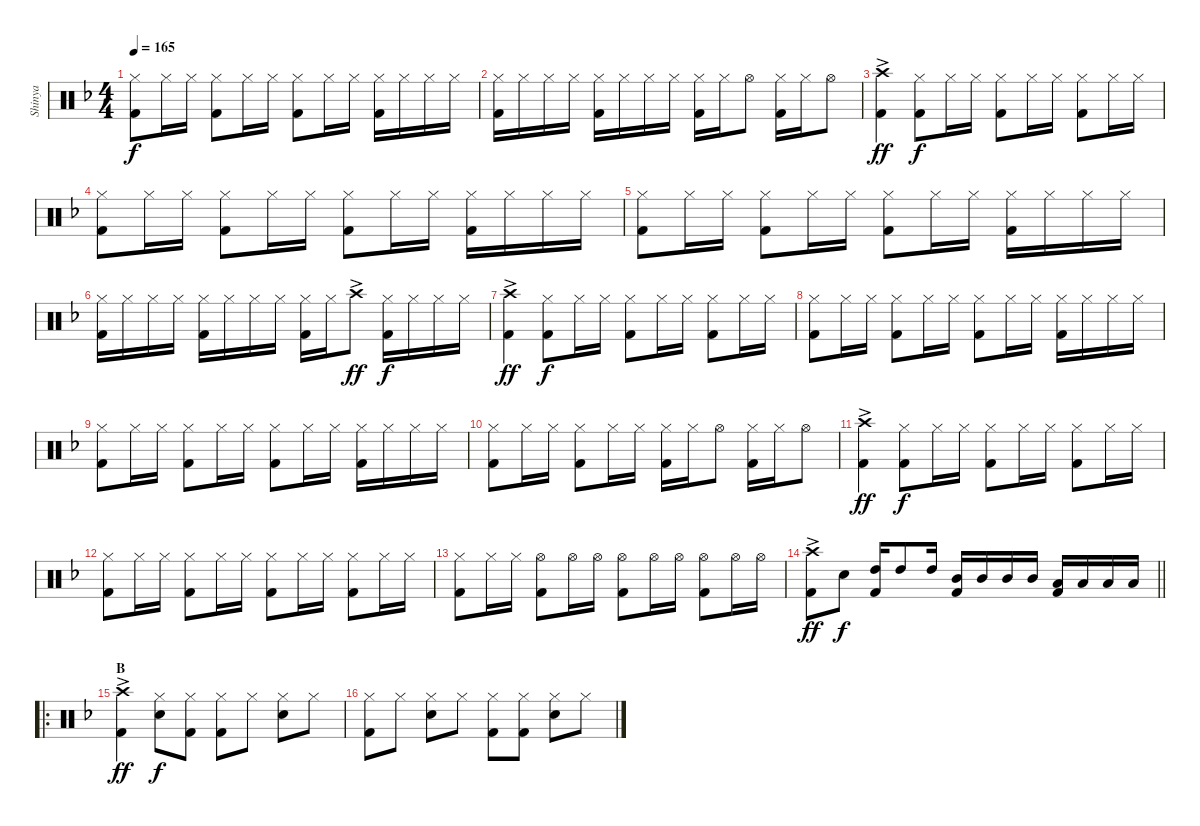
\track ("Shinya" "Shinya") {instrument percussion}
\staff {score}
\articulation defaults
\ts (4 4)
\tempo 165
\clef neutral
\ks dminor
("Hi-Hat (closed)" "Kick (hit) 2").8{dy f} "Hi-Hat (closed)".16 "Hi-Hat (closed)".16 ("Hi-Hat (closed)" "Kick (hit) 2").8 "Hi-Hat (closed)".16 "Hi-Hat (closed)".16 ("Hi-Hat (closed)" "Kick (hit) 2").8 "Hi-Hat (closed)".16 "Hi-Hat (closed)".16 ("Hi-Hat (closed)" "Kick (hit) 2").16 "Hi-Hat (closed)".16 "Hi-Hat (closed)".16 "Hi-Hat (closed)".16 |
("Hi-Hat (closed)" "Kick (hit) 2").16 "Hi-Hat (closed)".16 "Hi-Hat (closed)".16 "Hi-Hat (closed)".16 ("Hi-Hat (closed)" "Kick (hit) 2").16 "Hi-Hat (closed)".16 "Hi-Hat (closed)".16 "Hi-Hat (closed)".16 ("Hi-Hat (closed)" "Kick (hit) 2").16 "Hi-Hat (closed)".16 "Hi-Hat (open)".8 ("Hi-Hat (closed)" "Kick (hit) 2").16 "Hi-Hat (closed)".16 "Hi-Hat (open)".8 |
("Crash high (hit)"{ac} "Kick (hit) 2").4{dy ff} ("Hi-Hat (closed)" "Kick (hit) 2").8{dy f} "Hi-Hat (closed)".16 "Hi-Hat (closed)".16 ("Hi-Hat (closed)" "Kick (hit) 2").8 "Hi-Hat (closed)".16 "Hi-Hat (closed)".16 ("Hi-Hat (closed)" "Kick (hit) 2").8 "Hi-Hat (closed)".16 "Hi-Hat (closed)".16 |
("Hi-Hat (closed)" "Kick (hit) 2").8 "Hi-Hat (closed)".16 "Hi-Hat (closed)".16 ("Hi-Hat (closed)" "Kick (hit) 2").8 "Hi-Hat (closed)".16 "Hi-Hat (closed)".16 ("Hi-Hat (closed)" "Kick (hit) 2").8 "Hi-Hat (closed)".16 "Hi-Hat (closed)".16 ("Hi-Hat (closed)" "Kick (hit) 2").16 "Hi-Hat (closed)".16 "Hi-Hat (closed)".16 "Hi-Hat (closed)".16 |
("Hi-Hat (closed)" "Kick (hit) 2").8 "Hi-Hat (closed)".16 "Hi-Hat (closed)".16 ("Hi-Hat (closed)" "Kick (hit) 2").8 "Hi-Hat (closed)".16 "Hi-Hat (closed)".16 ("Hi-Hat (closed)" "Kick (hit) 2").8 "Hi-Hat (closed)".16 "Hi-Hat (closed)".16 ("Hi-Hat (closed)" "Kick (hit) 2").16 "Hi-Hat (closed)".16 "Hi-Hat (closed)".16 "Hi-Hat (closed)".16 |
("Hi-Hat (closed)" "Kick (hit) 2").16 "Hi-Hat (closed)".16 "Hi-Hat (closed)".16 "Hi-Hat (closed)".16 ("Hi-Hat (closed)" "Kick (hit) 2").16 "Hi-Hat (closed)".16 "Hi-Hat (closed)".16 "Hi-Hat (closed)".16 ("Hi-Hat (closed)" "Kick (hit) 2").16 "Hi-Hat (closed)".16 "Crash high (hit)"{ac}.8{dy ff} ("Hi-Hat (closed)" "Kick (hit) 2").16{dy f} "Hi-Hat (closed)".16 "Hi-Hat (closed)".16 "Hi-Hat (closed)".16 |
("Crash high (hit)"{ac} "Kick (hit) 2").4{dy ff} ("Hi-Hat (closed)" "Kick (hit) 2").8{dy f} "Hi-Hat (closed)".16 "Hi-Hat (closed)".16 ("Hi-Hat (closed)" "Kick (hit) 2").8 "Hi-Hat (closed)".16 "Hi-Hat (closed)".16 ("Hi-Hat (closed)" "Kick (hit) 2").8 "Hi-Hat (closed)".16 "Hi-Hat (closed)".16 |
("Hi-Hat (closed)" "Kick (hit) 2").8 "Hi-Hat (closed)".16 "Hi-Hat (closed)".16 ("Hi-Hat (closed)" "Kick (hit) 2").8 "Hi-Hat (closed)".16 "Hi-Hat (closed)".16 ("Hi-Hat (closed)" "Kick (hit) 2").8 "Hi-Hat (closed)".16 "Hi-Hat (closed)".16 ("Hi-Hat (closed)" "Kick (hit) 2").16 "Hi-Hat (closed)".16 "Hi-Hat (closed)".16 "Hi-Hat (closed)".16 |
("Hi-Hat (closed)" "Kick (hit) 2").8 "Hi-Hat (closed)".16 "Hi-Hat (closed)".16 ("Hi-Hat (closed)" "Kick (hit) 2").8 "Hi-Hat (closed)".16 "Hi-Hat (closed)".16 ("Hi-Hat (closed)" "Kick (hit) 2").8 "Hi-Hat (closed)".16 "Hi-Hat (closed)".16 ("Hi-Hat (closed)" "Kick (hit) 2").16 "Hi-Hat (closed)".16 "Hi-Hat (closed)".16 "Hi-Hat (closed)".16 |
("Hi-Hat (closed)" "Kick (hit) 2").8 "Hi-Hat (closed)".16 "Hi-Hat (closed)".16 ("Hi-Hat (closed)" "Kick (hit) 2").8 "Hi-Hat (closed)".16 "Hi-Hat (closed)".16 ("Hi-Hat (closed)" "Kick (hit) 2").16 "Hi-Hat (closed)".16 "Hi-Hat (open)".8 ("Hi-Hat (closed)" "Kick (hit) 2").16 "Hi-Hat (closed)".16 "Hi-Hat (open)".8 |
("Crash high (hit)"{ac} "Kick (hit) 2").4{dy ff} ("Hi-Hat (closed)" "Kick (hit) 2").8{dy f} "Hi-Hat (closed)".16 "Hi-Hat (closed)".16 ("Hi-Hat (closed)" "Kick (hit) 2").8 "Hi-Hat (closed)".16 "Hi-Hat (closed)".16 ("Hi-Hat (closed)" "Kick (hit) 2").8 "Hi-Hat (closed)".16 "Hi-Hat (closed)".16 |
("Hi-Hat (closed)" "Kick (hit) 2").8 "Hi-Hat (closed)".16 "Hi-Hat (closed)".16 ("Hi-Hat (closed)" "Kick (hit) 2").8 "Hi-Hat (closed)".16 "Hi-Hat (closed)".16 ("Hi-Hat (closed)" "Kick (hit) 2").8 "Hi-Hat (closed)".16 "Hi-Hat (closed)".16 ("Hi-Hat (closed)" "Kick (hit) 2").8 "Hi-Hat (closed)".16 "Hi-Hat (closed)".16 |
("Hi-Hat (closed)" "Kick (hit) 2").8 "Hi-Hat (closed)".16 "Hi-Hat (closed)".16 ("Hi-Hat (open)" "Kick (hit) 2").8 "Hi-Hat (open)".16 "Hi-Hat (open)".16 ("Hi-Hat (open)" "Kick (hit) 2").8 "Hi-Hat (open)".16 "Hi-Hat (open)".16 ("Hi-Hat (open)" "Kick (hit) 2").8 "Hi-Hat (open)".16 "Hi-Hat (open)".16 |
\barLineRight lightlight
("Crash high (hit)"{ac} "Kick (hit) 2").8{dy ff} "Snare (hit) 2".8{dy f} ("High Tom (hit)" "Kick (hit) 2").16 "High Tom (hit)".8 "High Tom (hit)".16 ("Mid Tom (hit)" "Kick (hit) 2").16 "Mid Tom (hit)".16 "Mid Tom (hit)".16 "Mid Tom (hit)".16 ("Low Tom (hit)" "Kick (hit) 2").16 "Low Tom (hit)".16 "Low Tom (hit)".16 "Low Tom (hit)".16 |
\ro
\section ("" "B")
("Crash high (hit)"{ac} "Kick (hit) 2").4{dy ff} ("Hi-Hat (closed)" "Snare (hit) 2").8{dy f} ("Hi-Hat (closed)" "Kick (hit) 2").8 ("Hi-Hat (closed)" "Kick (hit) 2").8 "Hi-Hat (closed)".8 ("Hi-Hat (closed)" "Snare (hit) 2").8 "Hi-Hat (closed)".8 |
("Hi-Hat (closed)" "Kick (hit) 2").8 "Hi-Hat (closed)".8 ("Hi-Hat (closed)" "Snare (hit) 2").8 "Hi-Hat (closed)".8 ("Hi-Hat (closed)" "Kick (hit) 2").8 ("Hi-Hat (closed)" "Kick (hit) 2").8 ("Hi-Hat (closed)" "Snare (hit) 2").8 "Hi-Hat (closed)".8
